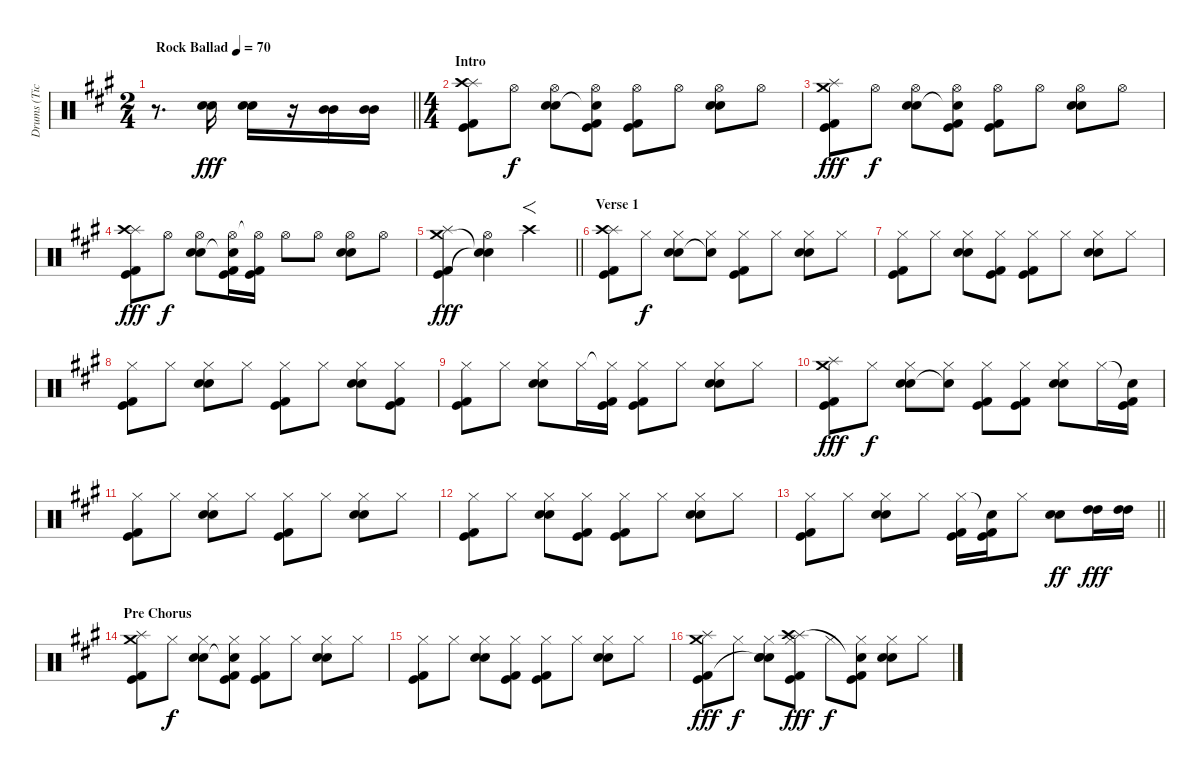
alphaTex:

\track ("Drums (Tico Torres)" "Drums (Tic") {instrument percussion}
\staff {score}
\articulation defaults
\ts (2 4)
\tempo (70 "Rock Ballad")
\clef neutral
\barLineRight lightlight
\ks a
r.8{d dy fff volume 16} ("Electric Snare (hit)" "Snare (hit) 2").16 ("Electric Snare (hit)" "Snare (hit) 2").16 r.16 ("Mid Tom (hit)" "Mid Tom (hit)").16 ("Mid Tom (hit)" "Mid Tom (hit)").16 |
\ts (4 4)
\section ("" "Intro")
("Splash (hit)" "Crash high (hit)" "Kick (hit)" "Kick (hit) 2").8 "Hi-Hat (open)".8{dy f} ("Hi-Hat (open)" "Electric Snare (hit)" "Snare (hit) 2").8 ("Hi-Hat (open)" "Snare (hit)"{t} "Kick (hit)" "Kick (hit) 2").8 ("Hi-Hat (open)" "Kick (hit)" "Kick (hit) 2").8 "Hi-Hat (open)".8 ("Hi-Hat (open)" "Electric Snare (hit)" "Snare (hit) 2").8 "Hi-Hat (open)".8 |
("Splash (hit)" "Crash medium (hit)" "Kick (hit)" "Kick (hit) 2").8{dy fff} "Hi-Hat (open)".8{dy f} ("Hi-Hat (open)" "Electric Snare (hit)" "Snare (hit) 2").8 ("Hi-Hat (open)" "Snare (hit)"{t} "Kick (hit)" "Kick (hit) 2").8 ("Hi-Hat (open)" "Kick (hit)" "Kick (hit) 2").8 "Hi-Hat (open)".8 ("Hi-Hat (open)" "Electric Snare (hit)" "Snare (hit) 2").8 "Hi-Hat (open)".8 |
("Splash (hit)" "Crash high (hit)" "Kick (hit)" "Kick (hit) 2").8{dy fff} "Hi-Hat (open)".8{dy f} ("Hi-Hat (open)" "Electric Snare (hit)" "Snare (hit) 2").8 ("Hi-Hat (open)" "Snare (hit)"{t} "Kick (hit)" "Kick (hit) 2").16 ("Hi-Hat (open)"{t} "Kick (hit)" "Kick (hit) 2").16 "Hi-Hat (open)".8 "Hi-Hat (open)".8 ("Hi-Hat (open)" "Electric Snare (hit)" "Snare (hit) 2").8 "Hi-Hat (open)".8 |
\barLineRight lightlight
("Splash (hit)" "Crash medium (hit)" "Kick (hit)" "Kick (hit) 2").4{dy fff} ("Hi-Hat (open)" "Snare (hit)"{t} "Snare (hit)"{t}).4 "Crash high (hit)"{tr (49 32)}.2{f} |
\section ("" "Verse 1")
("Splash (hit)" "Crash high (hit)" "Kick (hit)" "Kick (hit) 2").8 "Hi-Hat (closed)".8{dy f} ("Hi-Hat (closed)" "Electric Snare (hit)" "Snare (hit) 2").8 ("Hi-Hat (closed)" "Snare (hit)"{t}).8 ("Hi-Hat (closed)" "Kick (hit)" "Kick (hit) 2").8 "Hi-Hat (closed)".8 ("Hi-Hat (closed)" "Electric Snare (hit)" "Snare (hit) 2").8 "Hi-Hat (closed)".8 |
("Hi-Hat (closed)" "Kick (hit)" "Kick (hit) 2").8 "Hi-Hat (closed)".8 ("Hi-Hat (closed)" "Electric Snare (hit)" "Snare (hit) 2").8 ("Hi-Hat (closed)" "Kick (hit)" "Kick (hit) 2").8 ("Hi-Hat (closed)" "Kick (hit)" "Kick (hit) 2").8 "Hi-Hat (closed)".8 ("Hi-Hat (closed)" "Electric Snare (hit)" "Snare (hit) 2").8 "Hi-Hat (closed)".8 |
("Hi-Hat (closed)" "Kick (hit)" "Kick (hit) 2").8 "Hi-Hat (closed)".8 ("Hi-Hat (closed)" "Electric Snare (hit)" "Snare (hit) 2").8 "Hi-Hat (closed)".8 ("Hi-Hat (closed)" "Kick (hit)" "Kick (hit) 2").8 "Hi-Hat (closed)".8 ("Hi-Hat (closed)" "Electric Snare (hit)" "Snare (hit) 2").8 ("Hi-Hat (closed)" "Kick (hit)" "Kick (hit) 2").8 |
("Hi-Hat (closed)" "Kick (hit)" "Kick (hit) 2").8 "Hi-Hat (closed)".8 ("Hi-Hat (closed)" "Electric Snare (hit)" "Snare (hit) 2").8 "Hi-Hat (closed)".16 ("Hi-Hat (closed)"{t} "Kick (hit)" "Kick (hit) 2").16 ("Hi-Hat (closed)" "Kick (hit)" "Kick (hit) 2").8 "Hi-Hat (closed)".8 ("Hi-Hat (closed)" "Electric Snare (hit)" "Snare (hit) 2").8 "Hi-Hat (closed)".8 |
("Splash (hit)" "Crash medium (hit)" "Kick (hit)" "Kick (hit) 2").8{dy fff} "Hi-Hat (closed)".8{dy f} ("Hi-Hat (closed)" "Electric Snare (hit)" "Snare (hit) 2").8 ("Hi-Hat (closed)" "Snare (hit)"{t}).8 ("Hi-Hat (closed)" "Kick (hit)" "Kick (hit) 2").8 ("Hi-Hat (closed)" "Kick (hit)" "Kick (hit) 2").8 ("Hi-Hat (closed)" "Electric Snare (hit)" "Snare (hit) 2").8 "Hi-Hat (closed)".16 ("Snare (hit)"{t} "Kick (hit)" "Kick (hit) 2").16 |
("Hi-Hat (closed)" "Kick (hit)" "Kick (hit) 2").8 "Hi-Hat (closed)".8 ("Hi-Hat (closed)" "Electric Snare (hit)" "Snare (hit) 2").8 "Hi-Hat (closed)".8 ("Hi-Hat (closed)" "Kick (hit)" "Kick (hit) 2").8 "Hi-Hat (closed)".8 ("Hi-Hat (closed)" "Electric Snare (hit)" "Snare (hit) 2").8 "Hi-Hat (closed)".8 |
("Hi-Hat (closed)" "Kick (hit)" "Kick (hit) 2").8 "Hi-Hat (closed)".8 ("Hi-Hat (closed)" "Electric Snare (hit)" "Snare (hit) 2").8 ("Hi-Hat (closed)" "Kick (hit)" "Kick (hit) 2").8 ("Hi-Hat (closed)" "Kick (hit)" "Kick (hit) 2").8 "Hi-Hat (closed)".8 ("Hi-Hat (closed)" "Electric Snare (hit)" "Snare (hit) 2").8 "Hi-Hat (closed)".8 |
\barLineRight lightlight
("Hi-Hat (closed)" "Kick (hit)" "Kick (hit) 2").8 "Hi-Hat (closed)".8 ("Hi-Hat (closed)" "Electric Snare (hit)" "Snare (hit) 2").8 "Hi-Hat (closed)".8 ("Hi-Hat (closed)" "Kick (hit)" "Kick (hit) 2").16 ("Snare (hit)"{t} "Kick (hit)" "Kick (hit) 2").16 "Hi-Hat (closed)".8 ("Electric Snare (hit)" "Snare (hit) 2").8{dy ff} ("High Tom (hit)" "High Tom (hit)").16{dy fff} ("High Tom (hit)" "High Tom (hit)").16 |
\section ("" "Pre Chorus")
("Splash (hit)" "Crash medium (hit)" "Kick (hit)" "Kick (hit) 2").8 "Hi-Hat (closed)".8{dy f} ("Hi-Hat (closed)" "Electric Snare (hit)" "Snare (hit) 2").8 ("Hi-Hat (closed)" "Snare (hit)"{t} "Kick (hit)" "Kick (hit) 2").8 ("Hi-Hat (closed)" "Kick (hit)" "Kick (hit) 2").8 "Hi-Hat (closed)".8 ("Hi-Hat (closed)" "Electric Snare (hit)" "Snare (hit) 2").8 "Hi-Hat (closed)".8 |
("Hi-Hat (closed)" "Kick (hit)" "Kick (hit) 2").8 "Hi-Hat (closed)".8 ("Hi-Hat (closed)" "Electric Snare (hit)" "Snare (hit) 2").8 ("Hi-Hat (closed)" "Kick (hit)" "Kick (hit) 2").8 ("Hi-Hat (closed)" "Kick (hit)" "Kick (hit) 2").8 "Hi-Hat (closed)".8 ("Hi-Hat (closed)" "Electric Snare (hit)" "Snare (hit) 2").8 "Hi-Hat (closed)".8 |
("Splash (hit)" "Crash medium (hit)" "Kick (hit)" "Kick (hit) 2").8{dy fff} "Hi-Hat (closed)".8{dy f} ("Hi-Hat (closed)" "Electric Snare (hit)" "Snare (hit) 2" "Snare (hit)"{t}).8 ("Hi-Hat (closed)" "Splash (hit)" "Crash high (hit)" "Kick (hit)" "Kick (hit) 2").8{dy fff} "Hi-Hat (closed)".8{dy f} ("Hi-Hat (closed)" "Snare (hit)"{t} "Kick (hit)" "Kick (hit) 2").8 ("Hi-Hat (closed)" "Electric Snare (hit)" "Snare (hit) 2").8 "Hi-Hat (closed)".8
